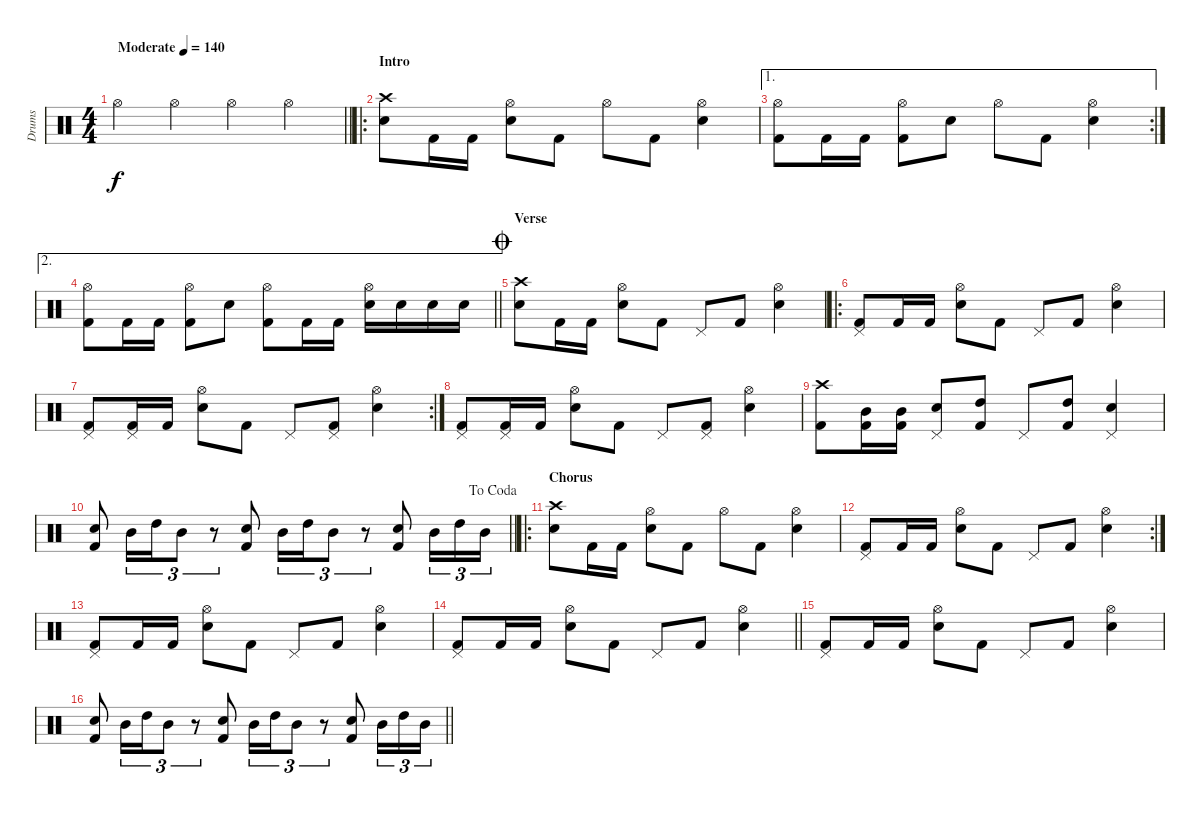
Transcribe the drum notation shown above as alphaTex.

\track ("Drums" "Drums") {instrument percussion}
\staff {score}
\articulation defaults
\ts (4 4)
\tempo (140 "Moderate")
\clef neutral
\barLineRight lightlight
\ks c "Hi-Hat (open)".4{dy f} "Hi-Hat (open)".4 "Hi-Hat (open)".4 "Hi-Hat (open)".4
|
\ro
\section ("" "Intro")
("Crash high (hit)" "Electric Snare (hit)").8 "Kick (hit) 2".16 "Kick (hit) 2".16 ("Hi-Hat (open)" "Electric Snare (hit)").8 "Kick (hit) 2".8 "Hi-Hat (open)".8 "Kick (hit) 2".8 ("Hi-Hat (open)" "Electric Snare (hit)").4 |
\ae 1
\rc 2
("Hi-Hat (open)" "Kick (hit) 2").8 "Kick (hit) 2".16 "Kick (hit) 2".16 ("Hi-Hat (open)" "Kick (hit) 2").8 "Electric Snare (hit)".8 "Hi-Hat (open)".8 "Kick (hit) 2".8 ("Hi-Hat (open)" "Electric Snare (hit)").4 |
\ae 2
\barLineRight lightlight
("Hi-Hat (open)" "Kick (hit) 2").8 "Kick (hit) 2".16 "Kick (hit) 2".16 ("Hi-Hat (open)" "Kick (hit) 2").8 "Electric Snare (hit)".8 ("Hi-Hat (open)" "Kick (hit) 2").8 "Kick (hit) 2".16 "Kick (hit) 2".16 ("Hi-Hat (open)" "Electric Snare (hit)").16 "Electric Snare (hit)".16 "Electric Snare (hit)".16 "Electric Snare (hit)".16 |
\section ("" "Verse")
\jump coda
("Crash high (hit)" "Electric Snare (hit)").8 "Kick (hit) 2".16 "Kick (hit) 2".16 ("Hi-Hat (open)" "Electric Snare (hit)").8 "Kick (hit) 2".8 "Pedal Hi-Hat (hit)".8 "Kick (hit) 2".8 ("Hi-Hat (open)" "Electric Snare (hit)").4 |
\ro
("Pedal Hi-Hat (hit)" "Kick (hit) 2").8 "Kick (hit) 2".16 "Kick (hit) 2".16 ("Hi-Hat (open)" "Electric Snare (hit)").8 "Kick (hit) 2".8 "Pedal Hi-Hat (hit)".8 "Kick (hit) 2".8 ("Hi-Hat (open)" "Electric Snare (hit)").4 |
\rc 2
("Pedal Hi-Hat (hit)" "Kick (hit) 2").8 ("Pedal Hi-Hat (hit)" "Kick (hit) 2").16 "Kick (hit) 2".16 ("Hi-Hat (open)" "Electric Snare (hit)").8 "Kick (hit) 2".8 "Pedal Hi-Hat (hit)".8 ("Pedal Hi-Hat (hit)" "Kick (hit) 2").8 ("Hi-Hat (open)" "Electric Snare (hit)").4 |
("Pedal Hi-Hat (hit)" "Kick (hit) 2").8 ("Pedal Hi-Hat (hit)" "Kick (hit) 2").16 "Kick (hit) 2".16 ("Hi-Hat (open)" "Electric Snare (hit)").8 "Kick (hit) 2".8 "Pedal Hi-Hat (hit)".8 ("Pedal Hi-Hat (hit)" "Kick (hit) 2").8 ("Hi-Hat (open)" "Electric Snare (hit)").4 |
("Crash high (hit)" "Kick (hit) 2").8 ("Mid Tom (hit)" "Kick (hit) 2").16 ("Mid Tom (hit)" "Kick (hit) 2").16 ("Pedal Hi-Hat (hit)" "Electric Snare (hit)").8 ("High Tom (hit)" "Kick (hit) 2").8 "Pedal Hi-Hat (hit)".8 ("High Tom (hit)" "Kick (hit) 2").8 ("Pedal Hi-Hat (hit)" "Electric Snare (hit)").4 |
\jump dacoda
\barLineRight lightlight
("Electric Snare (hit)" "Kick (hit) 2").8 "Mid Tom (hit)".16{tu (3 2)} "High Tom (hit)".16{tu (3 2)} "Mid Tom (hit)".8{tu (3 2)} r.8{tu (3 2)} ("Electric Snare (hit)" "Kick (hit) 2").8 "Mid Tom (hit)".16{tu (3 2)} "High Tom (hit)".16{tu (3 2)} "Mid Tom (hit)".8{tu (3 2)} r.8{tu (3 2)} ("Electric Snare (hit)" "Kick (hit) 2").8 "Mid Tom (hit)".16{tu (3 2)} "High Tom (hit)".16{tu (3 2)} "Mid Tom (hit)".16{tu (3 2)} |
\ro
\section ("" "Chorus")
("Crash high (hit)" "Electric Snare (hit)").8 "Kick (hit) 2".16 "Kick (hit) 2".16 ("Hi-Hat (open)" "Electric Snare (hit)").8 "Kick (hit) 2".8 "Hi-Hat (open)".8 "Kick (hit) 2".8 ("Hi-Hat (open)" "Electric Snare (hit)").4 |
\rc 2
("Pedal Hi-Hat (hit)" "Kick (hit) 2").8 "Kick (hit) 2".16 "Kick (hit) 2".16 ("Hi-Hat (open)" "Electric Snare (hit)").8 "Kick (hit) 2".8 "Pedal Hi-Hat (hit)".8 "Kick (hit) 2".8 ("Hi-Hat (open)" "Electric Snare (hit)").4 |
("Pedal Hi-Hat (hit)" "Kick (hit) 2").8 "Kick (hit) 2".16 "Kick (hit) 2".16 ("Hi-Hat (open)" "Electric Snare (hit)").8 "Kick (hit) 2".8 "Pedal Hi-Hat (hit)".8 "Kick (hit) 2".8 ("Hi-Hat (open)" "Electric Snare (hit)").4 |
\barLineRight lightlight
("Pedal Hi-Hat (hit)" "Kick (hit) 2").8 "Kick (hit) 2".16 "Kick (hit) 2".16 ("Hi-Hat (open)" "Electric Snare (hit)").8 "Kick (hit) 2".8 "Pedal Hi-Hat (hit)".8 "Kick (hit) 2".8 ("Hi-Hat (open)" "Electric Snare (hit)").4 |
("Pedal Hi-Hat (hit)" "Kick (hit) 2").8 "Kick (hit) 2".16 "Kick (hit) 2".16 ("Hi-Hat (open)" "Electric Snare (hit)").8 "Kick (hit) 2".8 "Pedal Hi-Hat (hit)".8 "Kick (hit) 2".8 ("Hi-Hat (open)" "Electric Snare (hit)").4 |
\barLineRight lightlight
("Electric Snare (hit)" "Kick (hit) 2").8 "Mid Tom (hit)".16{tu (3 2)} "High Tom (hit)".16{tu (3 2)} "Mid Tom (hit)".8{tu (3 2)} r.8{tu (3 2)} ("Electric Snare (hit)" "Kick (hit) 2").8 "Mid Tom (hit)".16{tu (3 2)} "High Tom (hit)".16{tu (3 2)} "Mid Tom (hit)".8{tu (3 2)} r.8{tu (3 2)} ("Electric Snare (hit)" "Kick (hit) 2").8 "Mid Tom (hit)".16{tu (3 2)} "High Tom (hit)".16{tu (3 2)} "Mid Tom (hit)".16{tu (3 2)}
